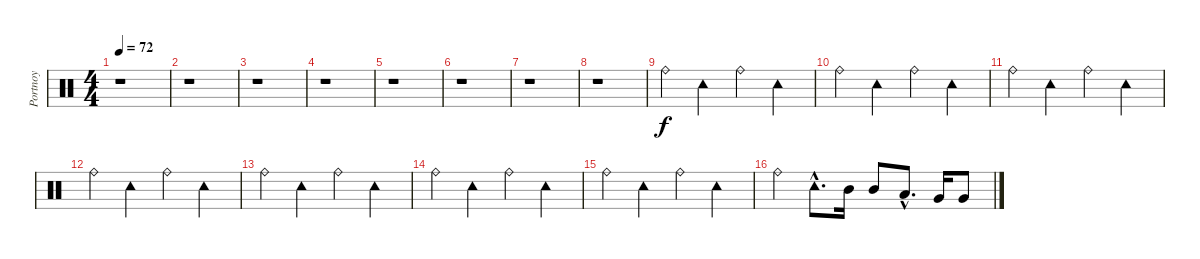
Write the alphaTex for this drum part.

\track ("Portnoy" "Portnoy") {instrument percussion}
\staff {score}
\articulation defaults
\ts (4 4)
\tempo 72
\clef neutral
\ks c
r.1{dy f} |
r.1 |
r.1 |
r.1 |
r.1 |
r.1 |
r.1 |
r.1 |
"Ride (bell)".4 "Tambourine (hit)".4 "Ride (bell)".4 "Tambourine (hit)".4 |
"Ride (bell)".4 "Tambourine (hit)".4 "Ride (bell)".4 "Tambourine (hit)".4 |
"Ride (bell)".4 "Tambourine (hit)".4 "Ride (bell)".4 "Tambourine (hit)".4 |
"Ride (bell)".4 "Tambourine (hit)".4 "Ride (bell)".4 "Tambourine (hit)".4 |
"Ride (bell)".4 "Tambourine (hit)".4 "Ride (bell)".4 "Tambourine (hit)".4 |
"Ride (bell)".4 "Tambourine (hit)".4 "Ride (bell)".4 "Tambourine (hit)".4 |
"Ride (bell)".4 "Tambourine (hit)".4 "Ride (bell)".4 "Tambourine (hit)".4 |
"Ride (bell)".4 "Tambourine (hit)"{hac}.8{d} "Mid Tom (hit)".16 "Mid Tom (hit)".8 "Low Tom (hit)"{hac}.8{d} "Very Low Tom (hit)".16 "Very Low Tom (hit)".8
